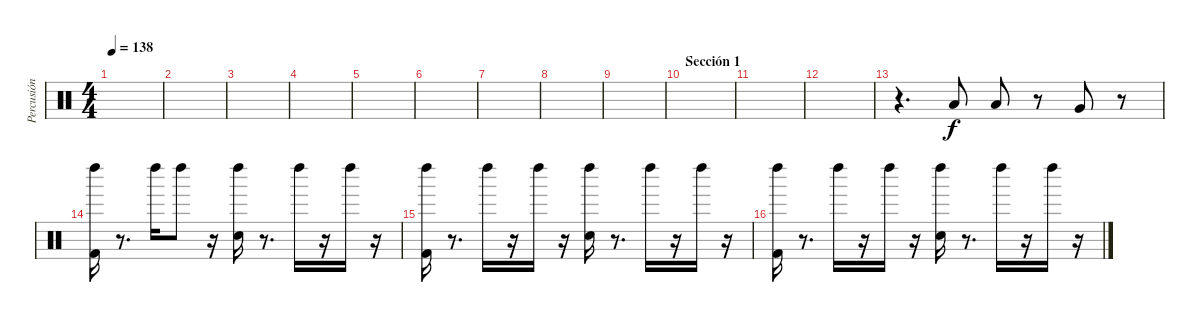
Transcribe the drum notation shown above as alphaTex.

\track ("Percusión" "Percusión") {instrument percussion}
\staff {score}
\articulation defaults
\ts (4 4)
\tempo 138
\clef neutral
\ks c
|
|
|
|
|
|
|
|
|
\section ("" "Sección 1")
|
|
|
r.4{d} "Low Tom (hit)".8 "Low Tom (hit)".8 r.8 "Very Low Tom (hit)".8 r.8 |
("Kick (hit) 2" "Left Maraca (hit)").16 r.8{d} "Left Maraca (hit)".16 "Left Maraca (hit)".8 r.16 ("Left Maraca (hit)" "Electric Snare (hit)").16 r.8{d} "Left Maraca (hit)".16 r.16 "Left Maraca (hit)".16 r.16 |
("Kick (hit) 2" "Left Maraca (hit)").16 r.8{d} "Left Maraca (hit)".16 r.16 "Left Maraca (hit)".16 r.16 ("Left Maraca (hit)" "Electric Snare (hit)").16 r.8{d} "Left Maraca (hit)".16 r.16 "Left Maraca (hit)".16 r.16 |
("Kick (hit) 2" "Left Maraca (hit)").16 r.8{d} "Left Maraca (hit)".16 r.16 "Left Maraca (hit)".16 r.16 ("Left Maraca (hit)" "Electric Snare (hit)").16 r.8{d} "Left Maraca (hit)".16 r.16 "Left Maraca (hit)".16 r.16
